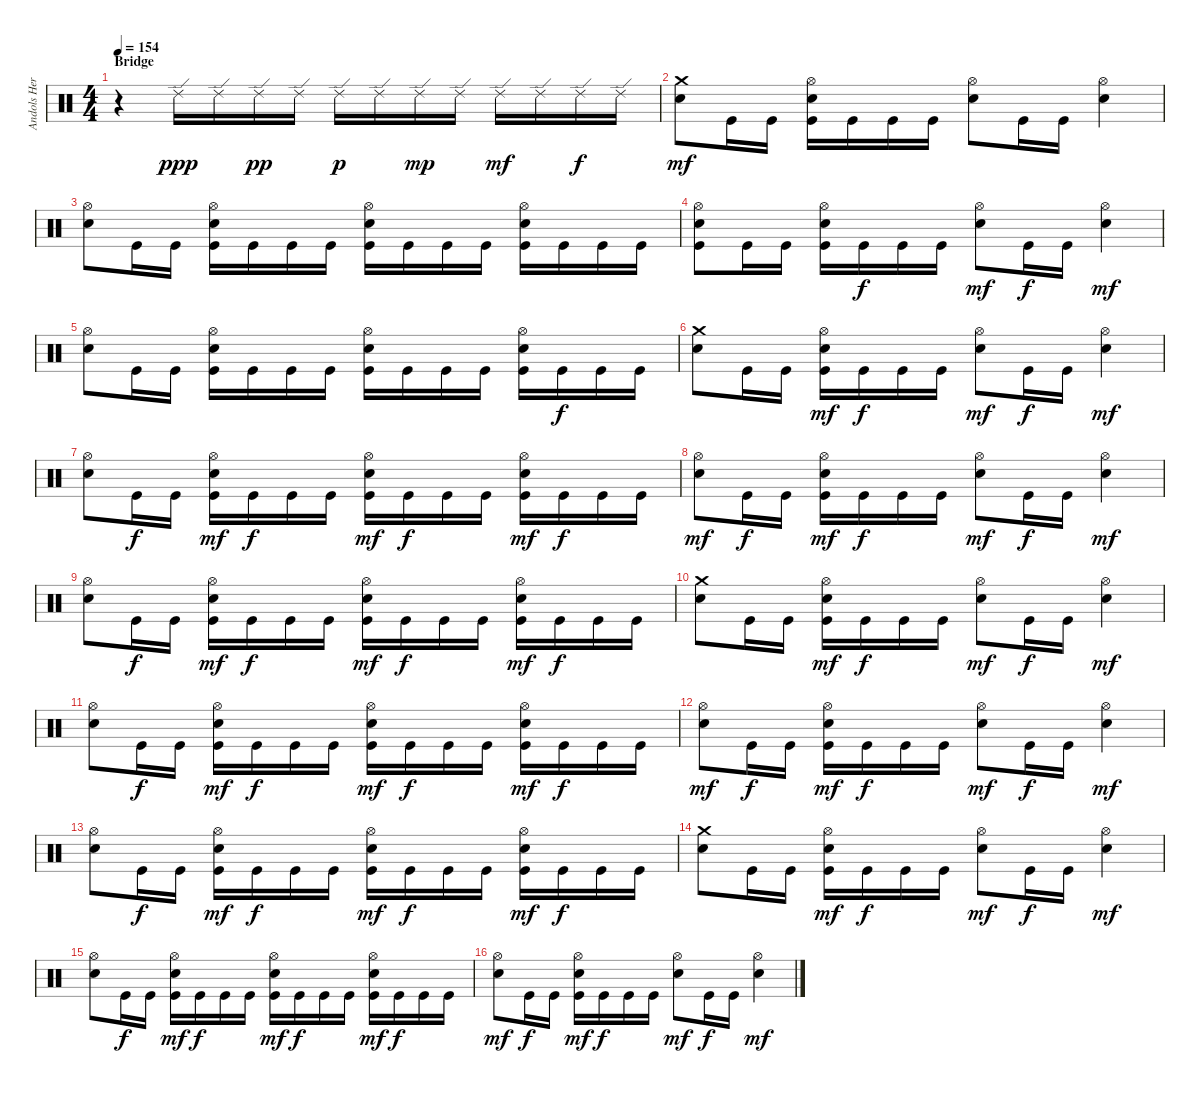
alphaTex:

\track ("Andols Herrick" "Andols Her") {instrument percussion}
\staff
\articulation defaults
\ts (4 4)
\section ("" "Bridge")
\tempo 154
\clef neutral
\ks c
r.4{dy f} "Ride (edge) 2".16{dy ppp} "Ride (edge) 2".16 "Ride (edge) 2".16{dy pp} "Ride (edge) 2".16 "Ride (edge) 2".16{dy p} "Ride (edge) 2".16 "Ride (edge) 2".16{dy mp} "Ride (edge) 2".16 "Ride (edge) 2".16{dy mf} "Ride (edge) 2".16 "Ride (edge) 2".16{dy f} "Ride (edge) 2".16 |
("Crash medium (hit)" "Electric Snare (hit)").8{dy mf} "Kick (hit)".16 "Kick (hit)".16 ("Hi-Hat (open)" "Electric Snare (hit)" "Kick (hit)").16 "Kick (hit)".16 "Kick (hit)".16 "Kick (hit)".16 ("Hi-Hat (open)" "Electric Snare (hit)").8 "Kick (hit)".16 "Kick (hit)".16 ("Hi-Hat (open)" "Electric Snare (hit)").4 |
("Hi-Hat (open)" "Electric Snare (hit)").8 "Kick (hit)".16 "Kick (hit)".16 ("Hi-Hat (open)" "Electric Snare (hit)" "Kick (hit)").16 "Kick (hit)".16 "Kick (hit)".16 "Kick (hit)".16 ("Hi-Hat (open)" "Electric Snare (hit)" "Kick (hit)").16 "Kick (hit)".16 "Kick (hit)".16 "Kick (hit)".16 ("Hi-Hat (open)" "Electric Snare (hit)" "Kick (hit)").16 "Kick (hit)".16 "Kick (hit)".16 "Kick (hit)".16 |
("Hi-Hat (open)" "Electric Snare (hit)" "Kick (hit)").8 "Kick (hit)".16 "Kick (hit)".16 ("Hi-Hat (open)" "Electric Snare (hit)" "Kick (hit)").16 "Kick (hit)".16{dy f} "Kick (hit)".16 "Kick (hit)".16 ("Hi-Hat (open)" "Electric Snare (hit)").8{dy mf} "Kick (hit)".16{dy f} "Kick (hit)".16 ("Hi-Hat (open)" "Electric Snare (hit)").4{dy mf} |
("Hi-Hat (open)" "Electric Snare (hit)").8 "Kick (hit)".16 "Kick (hit)".16 ("Hi-Hat (open)" "Electric Snare (hit)" "Kick (hit)").16 "Kick (hit)".16 "Kick (hit)".16 "Kick (hit)".16 ("Hi-Hat (open)" "Electric Snare (hit)" "Kick (hit)").16 "Kick (hit)".16 "Kick (hit)".16 "Kick (hit)".16 ("Hi-Hat (open)" "Electric Snare (hit)" "Kick (hit)").16 "Kick (hit)".16{dy f} "Kick (hit)".16 "Kick (hit)".16 |
("Crash medium (hit)" "Electric Snare (hit)").8 "Kick (hit)".16 "Kick (hit)".16 ("Hi-Hat (open)" "Electric Snare (hit)" "Kick (hit)").16{dy mf} "Kick (hit)".16{dy f} "Kick (hit)".16 "Kick (hit)".16 ("Hi-Hat (open)" "Electric Snare (hit)").8{dy mf} "Kick (hit)".16{dy f} "Kick (hit)".16 ("Hi-Hat (open)" "Electric Snare (hit)").4{dy mf} |
("Hi-Hat (open)" "Electric Snare (hit)").8 "Kick (hit)".16{dy f} "Kick (hit)".16 ("Hi-Hat (open)" "Electric Snare (hit)" "Kick (hit)").16{dy mf} "Kick (hit)".16{dy f} "Kick (hit)".16 "Kick (hit)".16 ("Hi-Hat (open)" "Electric Snare (hit)" "Kick (hit)").16{dy mf} "Kick (hit)".16{dy f} "Kick (hit)".16 "Kick (hit)".16 ("Hi-Hat (open)" "Electric Snare (hit)" "Kick (hit)").16{dy mf} "Kick (hit)".16{dy f} "Kick (hit)".16 "Kick (hit)".16 |
("Hi-Hat (open)" "Electric Snare (hit)").8{dy mf} "Kick (hit)".16{dy f} "Kick (hit)".16 ("Hi-Hat (open)" "Electric Snare (hit)" "Kick (hit)").16{dy mf} "Kick (hit)".16{dy f} "Kick (hit)".16 "Kick (hit)".16 ("Hi-Hat (open)" "Electric Snare (hit)").8{dy mf} "Kick (hit)".16{dy f} "Kick (hit)".16 ("Hi-Hat (open)" "Electric Snare (hit)").4{dy mf} |
("Hi-Hat (open)" "Electric Snare (hit)").8 "Kick (hit)".16{dy f} "Kick (hit)".16 ("Hi-Hat (open)" "Electric Snare (hit)" "Kick (hit)").16{dy mf} "Kick (hit)".16{dy f} "Kick (hit)".16 "Kick (hit)".16 ("Hi-Hat (open)" "Electric Snare (hit)" "Kick (hit)").16{dy mf} "Kick (hit)".16{dy f} "Kick (hit)".16 "Kick (hit)".16 ("Hi-Hat (open)" "Electric Snare (hit)" "Kick (hit)").16{dy mf} "Kick (hit)".16{dy f} "Kick (hit)".16 "Kick (hit)".16 |
("Crash medium (hit)" "Electric Snare (hit)").8 "Kick (hit)".16 "Kick (hit)".16 ("Hi-Hat (open)" "Electric Snare (hit)" "Kick (hit)").16{dy mf} "Kick (hit)".16{dy f} "Kick (hit)".16 "Kick (hit)".16 ("Hi-Hat (open)" "Electric Snare (hit)").8{dy mf} "Kick (hit)".16{dy f} "Kick (hit)".16 ("Hi-Hat (open)" "Electric Snare (hit)").4{dy mf} |
("Hi-Hat (open)" "Electric Snare (hit)").8 "Kick (hit)".16{dy f} "Kick (hit)".16 ("Hi-Hat (open)" "Electric Snare (hit)" "Kick (hit)").16{dy mf} "Kick (hit)".16{dy f} "Kick (hit)".16 "Kick (hit)".16 ("Hi-Hat (open)" "Electric Snare (hit)" "Kick (hit)").16{dy mf} "Kick (hit)".16{dy f} "Kick (hit)".16 "Kick (hit)".16 ("Hi-Hat (open)" "Electric Snare (hit)" "Kick (hit)").16{dy mf} "Kick (hit)".16{dy f} "Kick (hit)".16 "Kick (hit)".16 |
("Hi-Hat (open)" "Electric Snare (hit)").8{dy mf} "Kick (hit)".16{dy f} "Kick (hit)".16 ("Hi-Hat (open)" "Electric Snare (hit)" "Kick (hit)").16{dy mf} "Kick (hit)".16{dy f} "Kick (hit)".16 "Kick (hit)".16 ("Hi-Hat (open)" "Electric Snare (hit)").8{dy mf} "Kick (hit)".16{dy f} "Kick (hit)".16 ("Hi-Hat (open)" "Electric Snare (hit)").4{dy mf} |
("Hi-Hat (open)" "Electric Snare (hit)").8 "Kick (hit)".16{dy f} "Kick (hit)".16 ("Hi-Hat (open)" "Electric Snare (hit)" "Kick (hit)").16{dy mf} "Kick (hit)".16{dy f} "Kick (hit)".16 "Kick (hit)".16 ("Hi-Hat (open)" "Electric Snare (hit)" "Kick (hit)").16{dy mf} "Kick (hit)".16{dy f} "Kick (hit)".16 "Kick (hit)".16 ("Hi-Hat (open)" "Electric Snare (hit)" "Kick (hit)").16{dy mf} "Kick (hit)".16{dy f} "Kick (hit)".16 "Kick (hit)".16 |
("Crash medium (hit)" "Electric Snare (hit)").8 "Kick (hit)".16 "Kick (hit)".16 ("Hi-Hat (open)" "Electric Snare (hit)" "Kick (hit)").16{dy mf} "Kick (hit)".16{dy f} "Kick (hit)".16 "Kick (hit)".16 ("Hi-Hat (open)" "Electric Snare (hit)").8{dy mf} "Kick (hit)".16{dy f} "Kick (hit)".16 ("Hi-Hat (open)" "Electric Snare (hit)").4{dy mf} |
("Hi-Hat (open)" "Electric Snare (hit)").8 "Kick (hit)".16{dy f} "Kick (hit)".16 ("Hi-Hat (open)" "Electric Snare (hit)" "Kick (hit)").16{dy mf} "Kick (hit)".16{dy f} "Kick (hit)".16 "Kick (hit)".16 ("Hi-Hat (open)" "Electric Snare (hit)" "Kick (hit)").16{dy mf} "Kick (hit)".16{dy f} "Kick (hit)".16 "Kick (hit)".16 ("Hi-Hat (open)" "Electric Snare (hit)" "Kick (hit)").16{dy mf} "Kick (hit)".16{dy f} "Kick (hit)".16 "Kick (hit)".16 |
("Hi-Hat (open)" "Electric Snare (hit)").8{dy mf} "Kick (hit)".16{dy f} "Kick (hit)".16 ("Hi-Hat (open)" "Electric Snare (hit)" "Kick (hit)").16{dy mf} "Kick (hit)".16{dy f} "Kick (hit)".16 "Kick (hit)".16 ("Hi-Hat (open)" "Electric Snare (hit)").8{dy mf} "Kick (hit)".16{dy f} "Kick (hit)".16 ("Hi-Hat (open)" "Electric Snare (hit)").4{dy mf}
